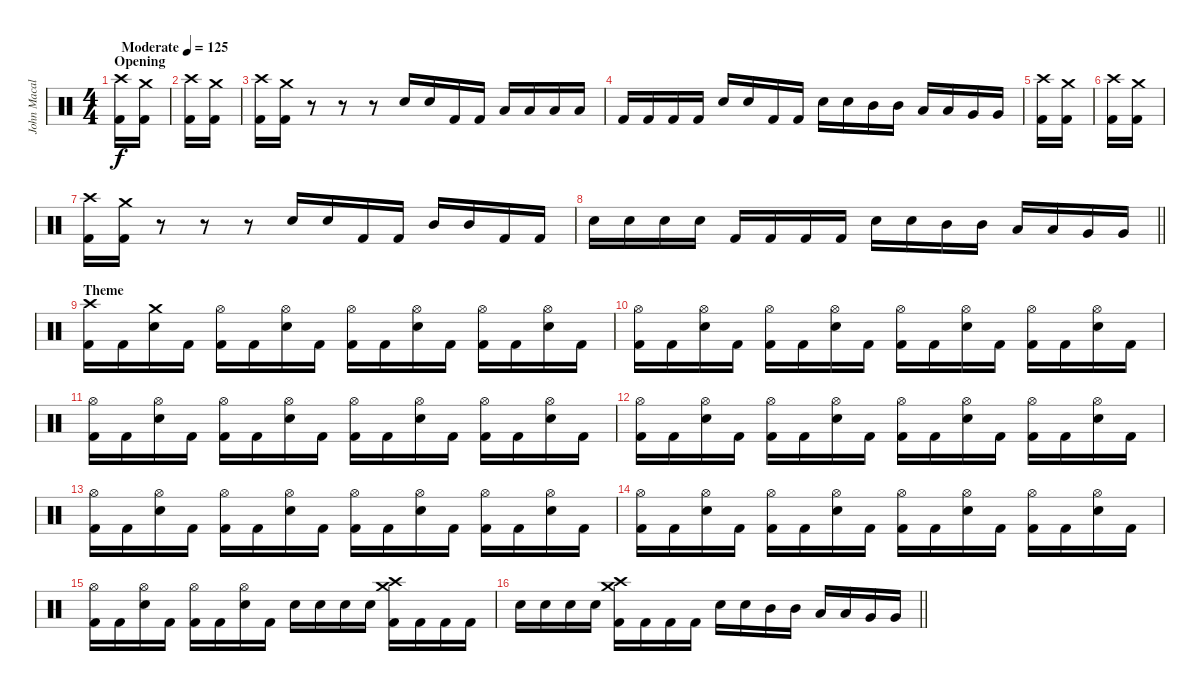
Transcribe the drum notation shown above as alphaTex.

\track ("John Macaluso " "John Macal") {instrument percussion}
\staff {score}
\articulation defaults
\ts (4 4)
\section ("" "Opening")
\tempo (125 "Moderate")
\clef neutral
\ks c
("Crash high (hit)" "Kick (hit) 2").16{dy f} ("Crash medium (hit)" "Kick (hit) 2").16 |
("Crash high (hit)" "Kick (hit) 2").16 ("Crash medium (hit)" "Kick (hit) 2").16 |
("Crash high (hit)" "Kick (hit) 2").16 ("Crash medium (hit)" "Kick (hit) 2").16 r.8 r.8 r.8 "Snare (hit) 2".16 "Snare (hit) 2".16 "Kick (hit) 2".16 "Kick (hit) 2".16 "Low Tom (hit)".16 "Low Tom (hit)".16 "Low Tom (hit)".16 "Low Tom (hit)".16 |
"Kick (hit) 2".16 "Kick (hit) 2".16 "Kick (hit) 2".16 "Kick (hit) 2".16 "Snare (hit) 2".16 "Snare (hit) 2".16 "Kick (hit) 2".16 "Kick (hit) 2".16 "Snare (hit) 2".16 "Snare (hit) 2".16 "Mid Tom (hit)".16 "Mid Tom (hit)".16 "Low Tom (hit)".16 "Low Tom (hit)".16 "Very Low Tom (hit)".16 "Very Low Tom (hit)".16 |
("Crash high (hit)" "Kick (hit) 2").16 ("Crash medium (hit)" "Kick (hit) 2").16 |
("Crash high (hit)" "Kick (hit) 2").16 ("Crash medium (hit)" "Kick (hit) 2").16 |
("Crash high (hit)" "Kick (hit) 2").16 ("Crash medium (hit)" "Kick (hit) 2").16 r.8 r.8 r.8 "Snare (hit) 2".16 "Snare (hit) 2".16 "Kick (hit) 2".16 "Kick (hit) 2".16 "Mid Tom (hit)".16 "Mid Tom (hit)".16 "Kick (hit) 2".16 "Kick (hit) 2".16 |
\barLineRight lightlight "Snare (hit) 2".16 "Snare (hit) 2".16 "Snare (hit) 2".16 "Snare (hit) 2".16 "Kick (hit) 2".16 "Kick (hit) 2".16 "Kick (hit) 2".16 "Kick (hit) 2".16 "Snare (hit) 2".16 "Snare (hit) 2".16 "Mid Tom (hit)".16 "Mid Tom (hit)".16 "Low Tom (hit)".16 "Low Tom (hit)".16 "Very Low Tom (hit)".16 "Very Low Tom (hit)".16
|
\section ("" "Theme")
("Crash high (hit)" "Kick (hit) 2").16 "Kick (hit) 2".16 ("Crash medium (hit)" "Snare (hit) 2").16 "Kick (hit) 2".16 ("Hi-Hat (open)" "Kick (hit) 2").16 "Kick (hit) 2".16 ("Hi-Hat (open)" "Snare (hit) 2").16 "Kick (hit) 2".16 ("Hi-Hat (open)" "Kick (hit) 2").16 "Kick (hit) 2".16 ("Hi-Hat (open)" "Snare (hit) 2").16 "Kick (hit) 2".16 ("Hi-Hat (open)" "Kick (hit) 2").16 "Kick (hit) 2".16 ("Hi-Hat (open)" "Snare (hit) 2").16 "Kick (hit) 2".16 |
("Hi-Hat (open)" "Kick (hit) 2").16 "Kick (hit) 2".16 ("Hi-Hat (open)" "Snare (hit) 2").16 "Kick (hit) 2".16 ("Hi-Hat (open)" "Kick (hit) 2").16 "Kick (hit) 2".16 ("Hi-Hat (open)" "Snare (hit) 2").16 "Kick (hit) 2".16 ("Hi-Hat (open)" "Kick (hit) 2").16 "Kick (hit) 2".16 ("Hi-Hat (open)" "Snare (hit) 2").16 "Kick (hit) 2".16 ("Hi-Hat (open)" "Kick (hit) 2").16 "Kick (hit) 2".16 ("Hi-Hat (open)" "Snare (hit) 2").16 "Kick (hit) 2".16 |
("Hi-Hat (open)" "Kick (hit) 2").16 "Kick (hit) 2".16 ("Hi-Hat (open)" "Snare (hit) 2").16 "Kick (hit) 2".16 ("Hi-Hat (open)" "Kick (hit) 2").16 "Kick (hit) 2".16 ("Hi-Hat (open)" "Snare (hit) 2").16 "Kick (hit) 2".16 ("Hi-Hat (open)" "Kick (hit) 2").16 "Kick (hit) 2".16 ("Hi-Hat (open)" "Snare (hit) 2").16 "Kick (hit) 2".16 ("Hi-Hat (open)" "Kick (hit) 2").16 "Kick (hit) 2".16 ("Hi-Hat (open)" "Snare (hit) 2").16 "Kick (hit) 2".16 |
("Hi-Hat (open)" "Kick (hit) 2").16 "Kick (hit) 2".16 ("Hi-Hat (open)" "Snare (hit) 2").16 "Kick (hit) 2".16 ("Hi-Hat (open)" "Kick (hit) 2").16 "Kick (hit) 2".16 ("Hi-Hat (open)" "Snare (hit) 2").16 "Kick (hit) 2".16 ("Hi-Hat (open)" "Kick (hit) 2").16 "Kick (hit) 2".16 ("Hi-Hat (open)" "Snare (hit) 2").16 "Kick (hit) 2".16 ("Hi-Hat (open)" "Kick (hit) 2").16 "Kick (hit) 2".16 ("Hi-Hat (open)" "Snare (hit) 2").16 "Kick (hit) 2".16 |
("Hi-Hat (open)" "Kick (hit) 2").16 "Kick (hit) 2".16 ("Hi-Hat (open)" "Snare (hit) 2").16 "Kick (hit) 2".16 ("Hi-Hat (open)" "Kick (hit) 2").16 "Kick (hit) 2".16 ("Hi-Hat (open)" "Snare (hit) 2").16 "Kick (hit) 2".16 ("Hi-Hat (open)" "Kick (hit) 2").16 "Kick (hit) 2".16 ("Hi-Hat (open)" "Snare (hit) 2").16 "Kick (hit) 2".16 ("Hi-Hat (open)" "Kick (hit) 2").16 "Kick (hit) 2".16 ("Hi-Hat (open)" "Snare (hit) 2").16 "Kick (hit) 2".16 |
("Hi-Hat (open)" "Kick (hit) 2").16 "Kick (hit) 2".16 ("Hi-Hat (open)" "Snare (hit) 2").16 "Kick (hit) 2".16 ("Hi-Hat (open)" "Kick (hit) 2").16 "Kick (hit) 2".16 ("Hi-Hat (open)" "Snare (hit) 2").16 "Kick (hit) 2".16 ("Hi-Hat (open)" "Kick (hit) 2").16 "Kick (hit) 2".16 ("Hi-Hat (open)" "Snare (hit) 2").16 "Kick (hit) 2".16 ("Hi-Hat (open)" "Kick (hit) 2").16 "Kick (hit) 2".16 ("Hi-Hat (open)" "Snare (hit) 2").16 "Kick (hit) 2".16 |
("Hi-Hat (open)" "Kick (hit) 2").16 "Kick (hit) 2".16 ("Hi-Hat (open)" "Snare (hit) 2").16 "Kick (hit) 2".16 ("Hi-Hat (open)" "Kick (hit) 2").16 "Kick (hit) 2".16 ("Hi-Hat (open)" "Snare (hit) 2").16 "Kick (hit) 2".16 "Snare (hit) 2".16 "Snare (hit) 2".16 "Snare (hit) 2".16 "Snare (hit) 2".16 ("Crash medium (hit)" "Crash high (hit)" "Kick (hit) 2").16 "Kick (hit) 2".16 "Kick (hit) 2".16 "Kick (hit) 2".16 |
\barLineRight lightlight "Snare (hit) 2".16 "Snare (hit) 2".16 "Snare (hit) 2".16 "Snare (hit) 2".16
("Crash medium (hit)" "Crash high (hit)" "Kick (hit) 2").16 "Kick (hit) 2".16 "Kick (hit) 2".16 "Kick (hit) 2".16 "Snare (hit) 2".16 "Snare (hit) 2".16 "Mid Tom (hit)".16 "Mid Tom (hit)".16 "Low Tom (hit)".16 "Low Tom (hit)".16 "Very Low Tom (hit)".16 "Very Low Tom (hit)".16
